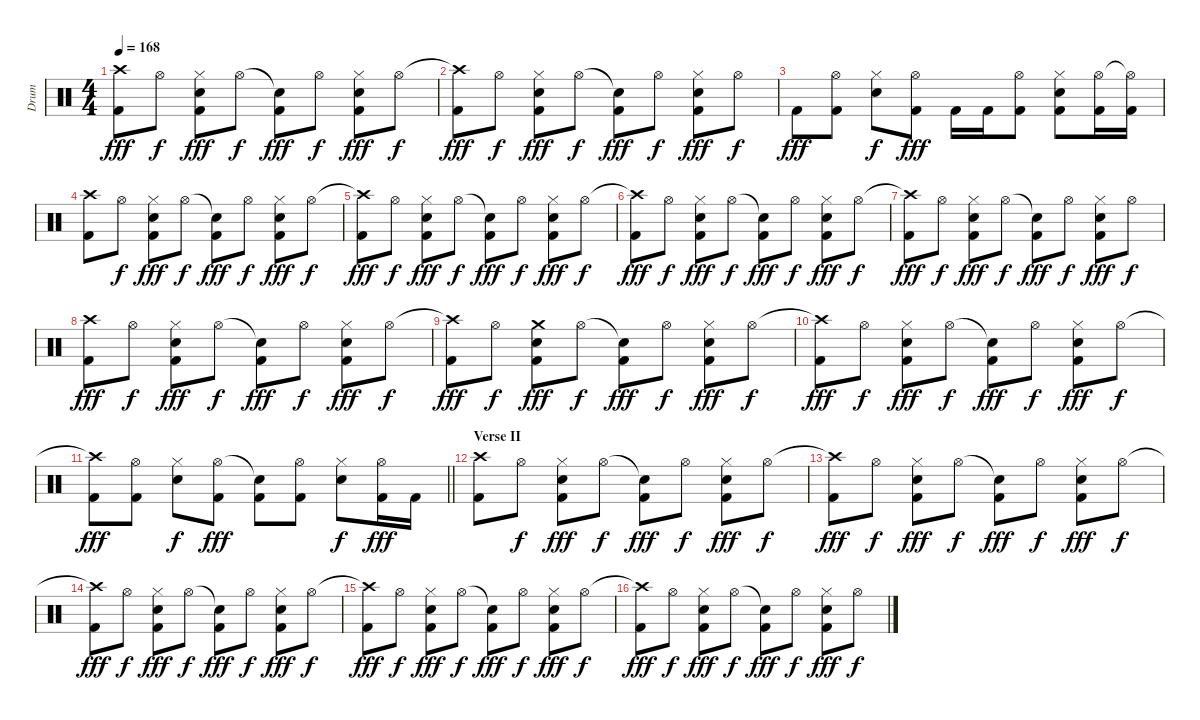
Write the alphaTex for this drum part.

\track ("Drum" "Drum") {instrument percussion}
\staff {score}
\articulation defaults
\ts (4 4)
\tempo 168
\clef neutral
\ks c
("Crash high (hit)"{t} "Kick (hit) 2").8{dy fff} "Hi-Hat (open)".8{dy f} ("Hi-Hat (closed)" "Snare (hit) 2" "Kick (hit) 2").8{dy fff} "Hi-Hat (open)".8{dy f} ("Snare (hit)"{t} "Kick (hit) 2").8{dy fff} "Hi-Hat (open)".8{dy f} ("Hi-Hat (closed)" "Snare (hit) 2" "Kick (hit) 2").8{dy fff} "Hi-Hat (open)".8{dy f} |
("Crash high (hit)"{t} "Kick (hit) 2").8{dy fff} "Hi-Hat (open)".8{dy f} ("Hi-Hat (closed)" "Snare (hit) 2" "Kick (hit) 2").8{dy fff} "Hi-Hat (open)".8{dy f} ("Snare (hit)"{t} "Kick (hit) 2").8{dy fff} "Hi-Hat (open)".8{dy f} ("Hi-Hat (closed)" "Snare (hit) 2" "Kick (hit) 2").8{dy fff} "Hi-Hat (open)".8{dy f} |
"Kick (hit) 2".8{dy fff} ("Hi-Hat (open)" "Kick (hit) 2").8 ("Hi-Hat (closed)" "Snare (hit) 2").8{dy f} ("Hi-Hat (open)" "Kick (hit) 2").8{dy fff} "Kick (hit) 2".16 "Kick (hit) 2".16 ("Hi-Hat (open)" "Kick (hit) 2").8 ("Hi-Hat (closed)" "Snare (hit) 2" "Kick (hit) 2").8 ("Hi-Hat (open)" "Kick (hit) 2").16 ("Hi-Hat (open)"{t} "Kick (hit) 2").16 |
("Crash high (hit)" "Kick (hit) 2").8 "Hi-Hat (open)".8{dy f} ("Hi-Hat (closed)" "Snare (hit) 2" "Kick (hit) 2").8{dy fff} "Hi-Hat (open)".8{dy f} ("Snare (hit)"{t} "Kick (hit) 2").8{dy fff} "Hi-Hat (open)".8{dy f} ("Hi-Hat (closed)" "Snare (hit) 2" "Kick (hit) 2").8{dy fff} "Hi-Hat (open)".8{dy f} |
("Crash high (hit)"{t} "Kick (hit) 2").8{dy fff} "Hi-Hat (open)".8{dy f} ("Hi-Hat (closed)" "Snare (hit) 2" "Kick (hit) 2").8{dy fff} "Hi-Hat (open)".8{dy f} ("Snare (hit)"{t} "Kick (hit) 2").8{dy fff} "Hi-Hat (open)".8{dy f} ("Hi-Hat (closed)" "Snare (hit) 2" "Kick (hit) 2").8{dy fff} "Hi-Hat (open)".8{dy f} |
("Crash high (hit)"{t} "Kick (hit) 2").8{dy fff} "Hi-Hat (open)".8{dy f} ("Hi-Hat (closed)" "Snare (hit) 2" "Kick (hit) 2").8{dy fff} "Hi-Hat (open)".8{dy f} ("Snare (hit)"{t} "Kick (hit) 2").8{dy fff} "Hi-Hat (open)".8{dy f} ("Hi-Hat (closed)" "Snare (hit) 2" "Kick (hit) 2").8{dy fff} "Hi-Hat (open)".8{dy f} |
("Crash high (hit)"{t} "Kick (hit) 2").8{dy fff} "Hi-Hat (open)".8{dy f} ("Hi-Hat (closed)" "Snare (hit) 2" "Kick (hit) 2").8{dy fff} "Hi-Hat (open)".8{dy f} ("Snare (hit)"{t} "Kick (hit) 2").8{dy fff} "Hi-Hat (open)".8{dy f} ("Hi-Hat (closed)" "Snare (hit) 2" "Kick (hit) 2").8{dy fff} "Hi-Hat (open)".8{dy f} |
("Crash high (hit)" "Kick (hit) 2").8{dy fff} "Hi-Hat (open)".8{dy f} ("Hi-Hat (closed)" "Snare (hit) 2" "Kick (hit) 2").8{dy fff} "Hi-Hat (open)".8{dy f} ("Snare (hit)"{t} "Kick (hit) 2").8{dy fff} "Hi-Hat (open)".8{dy f} ("Hi-Hat (closed)" "Snare (hit) 2" "Kick (hit) 2").8{dy fff} "Hi-Hat (open)".8{dy f} |
("Crash high (hit)"{t} "Kick (hit) 2").8{dy fff} "Hi-Hat (open)".8{dy f} ("Crash medium (hit)" "Snare (hit) 2" "Kick (hit) 2").8{dy fff} "Hi-Hat (open)".8{dy f} ("Snare (hit)"{t} "Kick (hit) 2").8{dy fff} "Hi-Hat (open)".8{dy f} ("Hi-Hat (closed)" "Snare (hit) 2" "Kick (hit) 2").8{dy fff} "Hi-Hat (open)".8{dy f} |
("Crash high (hit)"{t} "Kick (hit) 2").8{dy fff} "Hi-Hat (open)".8{dy f} ("Hi-Hat (closed)" "Snare (hit) 2" "Kick (hit) 2").8{dy fff} "Hi-Hat (open)".8{dy f} ("Snare (hit)"{t} "Kick (hit) 2").8{dy fff} "Hi-Hat (open)".8{dy f} ("Hi-Hat (closed)" "Snare (hit) 2" "Kick (hit) 2").8{dy fff} "Hi-Hat (open)".8{dy f} |
\barLineRight lightlight
("Crash high (hit)"{t} "Kick (hit) 2").8{dy fff} ("Hi-Hat (open)" "Kick (hit) 2").8 ("Hi-Hat (closed)" "Snare (hit) 2").8{dy f} ("Hi-Hat (open)" "Kick (hit) 2").8{dy fff} ("Snare (hit)"{t} "Kick (hit) 2").8 ("Hi-Hat (open)" "Kick (hit) 2").8 ("Hi-Hat (closed)" "Snare (hit) 2").8{dy f} ("Hi-Hat (open)" "Kick (hit) 2").16{dy fff} "Kick (hit) 2".16 |
\section ("" "Verse II")
("Crash high (hit)" "Kick (hit) 2").8 "Hi-Hat (open)".8{dy f} ("Hi-Hat (closed)" "Snare (hit) 2" "Kick (hit) 2").8{dy fff} "Hi-Hat (open)".8{dy f} ("Snare (hit)"{t} "Kick (hit) 2").8{dy fff} "Hi-Hat (open)".8{dy f} ("Hi-Hat (closed)" "Snare (hit) 2" "Kick (hit) 2").8{dy fff} "Hi-Hat (open)".8{dy f} |
("Crash high (hit)"{t} "Kick (hit) 2").8{dy fff} "Hi-Hat (open)".8{dy f} ("Hi-Hat (closed)" "Snare (hit) 2" "Kick (hit) 2").8{dy fff} "Hi-Hat (open)".8{dy f} ("Snare (hit)"{t} "Kick (hit) 2").8{dy fff} "Hi-Hat (open)".8{dy f} ("Hi-Hat (closed)" "Snare (hit) 2" "Kick (hit) 2").8{dy fff} "Hi-Hat (open)".8{dy f} |
("Crash high (hit)"{t} "Kick (hit) 2").8{dy fff} "Hi-Hat (open)".8{dy f} ("Hi-Hat (closed)" "Snare (hit) 2" "Kick (hit) 2").8{dy fff} "Hi-Hat (open)".8{dy f} ("Snare (hit)"{t} "Kick (hit) 2").8{dy fff} "Hi-Hat (open)".8{dy f} ("Hi-Hat (closed)" "Snare (hit) 2" "Kick (hit) 2").8{dy fff} "Hi-Hat (open)".8{dy f} |
("Crash high (hit)"{t} "Kick (hit) 2").8{dy fff} "Hi-Hat (open)".8{dy f} ("Hi-Hat (closed)" "Snare (hit) 2" "Kick (hit) 2").8{dy fff} "Hi-Hat (open)".8{dy f} ("Snare (hit)"{t} "Kick (hit) 2").8{dy fff} "Hi-Hat (open)".8{dy f} ("Hi-Hat (closed)" "Snare (hit) 2" "Kick (hit) 2").8{dy fff} "Hi-Hat (open)".8{dy f} |
("Crash high (hit)"{t} "Kick (hit) 2").8{dy fff} "Hi-Hat (open)".8{dy f} ("Hi-Hat (closed)" "Snare (hit) 2" "Kick (hit) 2").8{dy fff} "Hi-Hat (open)".8{dy f} ("Snare (hit)"{t} "Kick (hit) 2").8{dy fff} "Hi-Hat (open)".8{dy f} ("Hi-Hat (closed)" "Snare (hit) 2" "Kick (hit) 2").8{dy fff} "Hi-Hat (open)".8{dy f}
